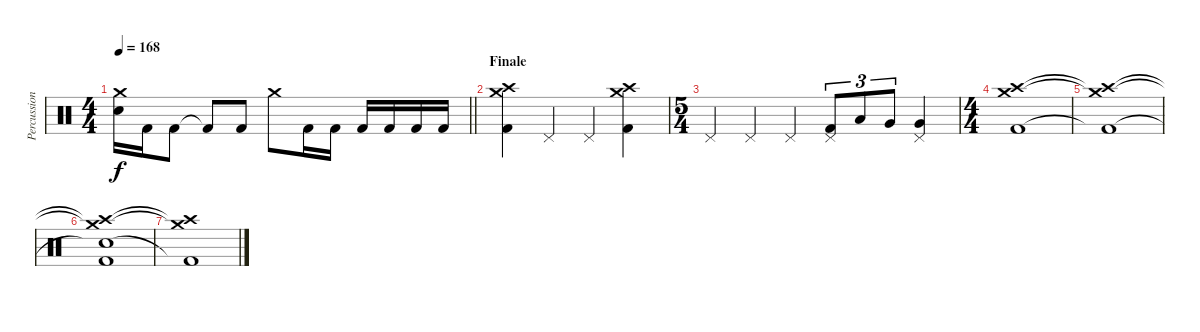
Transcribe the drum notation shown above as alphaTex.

\track ("Percussion" "Percussion") {instrument percussion}
\staff {score}
\articulation defaults
\ts (4 4)
\tempo 168
\clef neutral
\barLineRight lightlight
\ks c
("Crash medium (hit)" "Electric Snare (hit)").16{dy f} "Kick (hit) 2".16 "Kick (hit) 2".8 "Kick (hit) 2"{t}.8 "Kick (hit) 2".8 "Crash medium (hit)".8 "Kick (hit) 2".16 "Kick (hit) 2".16 "Kick (hit) 2".16 "Kick (hit) 2".16 "Kick (hit) 2".16 "Kick (hit) 2".16 |
\section ("" "Finale")
("Crash medium (hit)" "Crash high (hit)" "Kick (hit) 2").4 "Pedal Hi-Hat (hit)".4 "Pedal Hi-Hat (hit)".4 ("Crash medium (hit)" "Crash high (hit)" "Kick (hit) 2").4 |
\ts (5 4)
"Pedal Hi-Hat (hit)".4 "Pedal Hi-Hat (hit)".4 "Pedal Hi-Hat (hit)".4 ("Pedal Hi-Hat (hit)" "Kick (hit) 2").8{tu (3 2)} "Low Tom (hit)".8{tu (3 2)} "Very Low Tom (hit)".8{tu (3 2)} ("Pedal Hi-Hat (hit)" "Very Low Tom (hit)").4 |
\ts (4 4)
("Crash medium (hit)" "Crash high (hit)" "Kick (hit) 2").1 |
("Crash medium (hit)"{t} "Crash high (hit)"{t} "Kick (hit) 2"{t}).1 |
("Crash medium (hit)"{t} "Crash high (hit)"{t} "Snare (hit)"{t} "Kick (hit) 2").1 |
("Crash medium (hit)"{t} "Crash high (hit)"{t} "Kick (hit) 2"{t}).1
